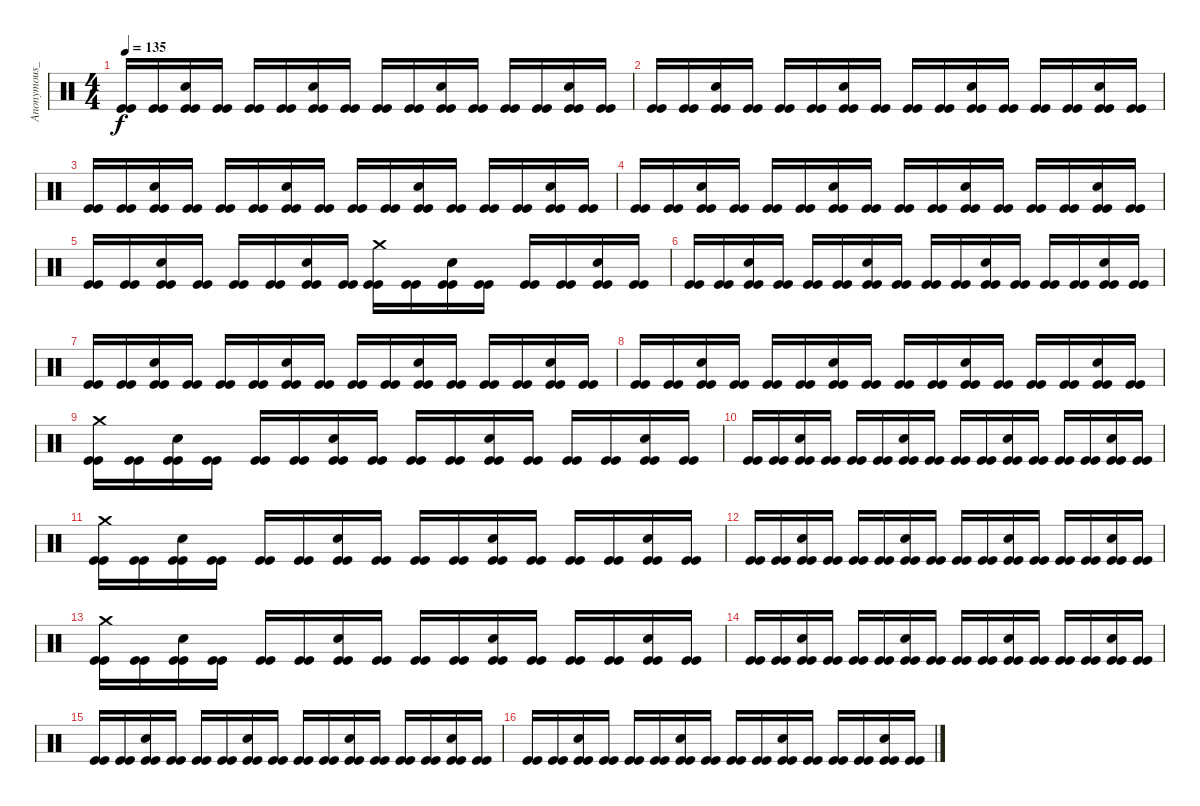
\track ("Anonymous_Drums" "Anonymous_") {instrument percussion}
\staff {score}
\articulation defaults
\ts (4 4)
\tempo 135
\clef neutral
\ks c
("Kick (hit)" "Kick (hit)").16{dy f} ("Kick (hit)" "Kick (hit)").16 ("Snare (hit) 2" "Kick (hit)" "Kick (hit)").16 ("Kick (hit)" "Kick (hit)").16 ("Kick (hit)" "Kick (hit)").16 ("Kick (hit)" "Kick (hit)").16 ("Snare (hit) 2" "Kick (hit)" "Kick (hit)").16 ("Kick (hit)" "Kick (hit)").16 ("Kick (hit)" "Kick (hit)").16 ("Kick (hit)" "Kick (hit)").16 ("Snare (hit) 2" "Kick (hit)" "Kick (hit)").16 ("Kick (hit)" "Kick (hit)").16 ("Kick (hit)" "Kick (hit)").16 ("Kick (hit)" "Kick (hit)").16 ("Snare (hit) 2" "Kick (hit)" "Kick (hit)").16 ("Kick (hit)" "Kick (hit)").16 |
("Kick (hit)" "Kick (hit)").16 ("Kick (hit)" "Kick (hit)").16 ("Snare (hit) 2" "Kick (hit)" "Kick (hit)").16 ("Kick (hit)" "Kick (hit)").16 ("Kick (hit)" "Kick (hit)").16 ("Kick (hit)" "Kick (hit)").16 ("Snare (hit) 2" "Kick (hit)" "Kick (hit)").16 ("Kick (hit)" "Kick (hit)").16 ("Kick (hit)" "Kick (hit)").16 ("Kick (hit)" "Kick (hit)").16 ("Snare (hit) 2" "Kick (hit)" "Kick (hit)").16 ("Kick (hit)" "Kick (hit)").16 ("Kick (hit)" "Kick (hit)").16 ("Kick (hit)" "Kick (hit)").16 ("Snare (hit) 2" "Kick (hit)" "Kick (hit)").16 ("Kick (hit)" "Kick (hit)").16 |
("Kick (hit)" "Kick (hit)").16 ("Kick (hit)" "Kick (hit)").16 ("Snare (hit) 2" "Kick (hit)" "Kick (hit)").16 ("Kick (hit)" "Kick (hit)").16 ("Kick (hit)" "Kick (hit)").16 ("Kick (hit)" "Kick (hit)").16 ("Snare (hit) 2" "Kick (hit)" "Kick (hit)").16 ("Kick (hit)" "Kick (hit)").16 ("Kick (hit)" "Kick (hit)").16 ("Kick (hit)" "Kick (hit)").16 ("Snare (hit) 2" "Kick (hit)" "Kick (hit)").16 ("Kick (hit)" "Kick (hit)").16 ("Kick (hit)" "Kick (hit)").16 ("Kick (hit)" "Kick (hit)").16 ("Snare (hit) 2" "Kick (hit)" "Kick (hit)").16 ("Kick (hit)" "Kick (hit)").16 |
("Kick (hit)" "Kick (hit)").16 ("Kick (hit)" "Kick (hit)").16 ("Snare (hit) 2" "Kick (hit)" "Kick (hit)").16 ("Kick (hit)" "Kick (hit)").16 ("Kick (hit)" "Kick (hit)").16 ("Kick (hit)" "Kick (hit)").16 ("Snare (hit) 2" "Kick (hit)" "Kick (hit)").16 ("Kick (hit)" "Kick (hit)").16 ("Kick (hit)" "Kick (hit)").16 ("Kick (hit)" "Kick (hit)").16 ("Snare (hit) 2" "Kick (hit)" "Kick (hit)").16 ("Kick (hit)" "Kick (hit)").16 ("Kick (hit)" "Kick (hit)").16 ("Kick (hit)" "Kick (hit)").16 ("Snare (hit) 2" "Kick (hit)" "Kick (hit)").16 ("Kick (hit)" "Kick (hit)").16 |
("Kick (hit)" "Kick (hit)").16 ("Kick (hit)" "Kick (hit)").16 ("Snare (hit) 2" "Kick (hit)" "Kick (hit)").16 ("Kick (hit)" "Kick (hit)").16 ("Kick (hit)" "Kick (hit)").16 ("Kick (hit)" "Kick (hit)").16 ("Snare (hit) 2" "Kick (hit)" "Kick (hit)").16 ("Kick (hit)" "Kick (hit)").16 ("Crash medium (hit)" "Kick (hit)" "Kick (hit)").16 ("Kick (hit)" "Kick (hit)").16 ("Snare (hit) 2" "Kick (hit)" "Kick (hit)").16 ("Kick (hit)" "Kick (hit)").16 ("Kick (hit)" "Kick (hit)").16 ("Kick (hit)" "Kick (hit)").16 ("Snare (hit) 2" "Kick (hit)" "Kick (hit)").16 ("Kick (hit)" "Kick (hit)").16 |
("Kick (hit)" "Kick (hit)").16 ("Kick (hit)" "Kick (hit)").16 ("Snare (hit) 2" "Kick (hit)" "Kick (hit)").16 ("Kick (hit)" "Kick (hit)").16 ("Kick (hit)" "Kick (hit)").16 ("Kick (hit)" "Kick (hit)").16 ("Snare (hit) 2" "Kick (hit)" "Kick (hit)").16 ("Kick (hit)" "Kick (hit)").16 ("Kick (hit)" "Kick (hit)").16 ("Kick (hit)" "Kick (hit)").16 ("Snare (hit) 2" "Kick (hit)" "Kick (hit)").16 ("Kick (hit)" "Kick (hit)").16 ("Kick (hit)" "Kick (hit)").16 ("Kick (hit)" "Kick (hit)").16 ("Snare (hit) 2" "Kick (hit)" "Kick (hit)").16 ("Kick (hit)" "Kick (hit)").16 |
("Kick (hit)" "Kick (hit)").16 ("Kick (hit)" "Kick (hit)").16 ("Snare (hit) 2" "Kick (hit)" "Kick (hit)").16 ("Kick (hit)" "Kick (hit)").16 ("Kick (hit)" "Kick (hit)").16 ("Kick (hit)" "Kick (hit)").16 ("Snare (hit) 2" "Kick (hit)" "Kick (hit)").16 ("Kick (hit)" "Kick (hit)").16 ("Kick (hit)" "Kick (hit)").16 ("Kick (hit)" "Kick (hit)").16 ("Snare (hit) 2" "Kick (hit)" "Kick (hit)").16 ("Kick (hit)" "Kick (hit)").16 ("Kick (hit)" "Kick (hit)").16 ("Kick (hit)" "Kick (hit)").16 ("Snare (hit) 2" "Kick (hit)" "Kick (hit)").16 ("Kick (hit)" "Kick (hit)").16 |
("Kick (hit)" "Kick (hit)").16 ("Kick (hit)" "Kick (hit)").16 ("Snare (hit) 2" "Kick (hit)" "Kick (hit)").16 ("Kick (hit)" "Kick (hit)").16 ("Kick (hit)" "Kick (hit)").16 ("Kick (hit)" "Kick (hit)").16 ("Snare (hit) 2" "Kick (hit)" "Kick (hit)").16 ("Kick (hit)" "Kick (hit)").16 ("Kick (hit)" "Kick (hit)").16 ("Kick (hit)" "Kick (hit)").16 ("Snare (hit) 2" "Kick (hit)" "Kick (hit)").16 ("Kick (hit)" "Kick (hit)").16 ("Kick (hit)" "Kick (hit)").16 ("Kick (hit)" "Kick (hit)").16 ("Snare (hit) 2" "Kick (hit)" "Kick (hit)").16 ("Kick (hit)" "Kick (hit)").16 |
("Crash medium (hit)" "Kick (hit)" "Kick (hit)").16 ("Kick (hit)" "Kick (hit)").16 ("Snare (hit) 2" "Kick (hit)" "Kick (hit)").16 ("Kick (hit)" "Kick (hit)").16 ("Kick (hit)" "Kick (hit)").16 ("Kick (hit)" "Kick (hit)").16 ("Snare (hit) 2" "Kick (hit)" "Kick (hit)").16 ("Kick (hit)" "Kick (hit)").16 ("Kick (hit)" "Kick (hit)").16 ("Kick (hit)" "Kick (hit)").16 ("Snare (hit) 2" "Kick (hit)" "Kick (hit)").16 ("Kick (hit)" "Kick (hit)").16 ("Kick (hit)" "Kick (hit)").16 ("Kick (hit)" "Kick (hit)").16 ("Snare (hit) 2" "Kick (hit)" "Kick (hit)").16 ("Kick (hit)" "Kick (hit)").16 |
("Kick (hit)" "Kick (hit)").16 ("Kick (hit)" "Kick (hit)").16 ("Snare (hit) 2" "Kick (hit)" "Kick (hit)").16 ("Kick (hit)" "Kick (hit)").16 ("Kick (hit)" "Kick (hit)").16 ("Kick (hit)" "Kick (hit)").16 ("Snare (hit) 2" "Kick (hit)" "Kick (hit)").16 ("Kick (hit)" "Kick (hit)").16 ("Kick (hit)" "Kick (hit)").16 ("Kick (hit)" "Kick (hit)").16 ("Snare (hit) 2" "Kick (hit)" "Kick (hit)").16 ("Kick (hit)" "Kick (hit)").16 ("Kick (hit)" "Kick (hit)").16 ("Kick (hit)" "Kick (hit)").16 ("Snare (hit) 2" "Kick (hit)" "Kick (hit)").16 ("Kick (hit)" "Kick (hit)").16 |
("Crash medium (hit)" "Kick (hit)" "Kick (hit)").16 ("Kick (hit)" "Kick (hit)").16 ("Snare (hit) 2" "Kick (hit)" "Kick (hit)").16 ("Kick (hit)" "Kick (hit)").16 ("Kick (hit)" "Kick (hit)").16 ("Kick (hit)" "Kick (hit)").16 ("Snare (hit) 2" "Kick (hit)" "Kick (hit)").16 ("Kick (hit)" "Kick (hit)").16 ("Kick (hit)" "Kick (hit)").16 ("Kick (hit)" "Kick (hit)").16 ("Snare (hit) 2" "Kick (hit)" "Kick (hit)").16 ("Kick (hit)" "Kick (hit)").16 ("Kick (hit)" "Kick (hit)").16 ("Kick (hit)" "Kick (hit)").16 ("Snare (hit) 2" "Kick (hit)" "Kick (hit)").16 ("Kick (hit)" "Kick (hit)").16 |
("Kick (hit)" "Kick (hit)").16 ("Kick (hit)" "Kick (hit)").16 ("Snare (hit) 2" "Kick (hit)" "Kick (hit)").16 ("Kick (hit)" "Kick (hit)").16 ("Kick (hit)" "Kick (hit)").16 ("Kick (hit)" "Kick (hit)").16 ("Snare (hit) 2" "Kick (hit)" "Kick (hit)").16 ("Kick (hit)" "Kick (hit)").16 ("Kick (hit)" "Kick (hit)").16 ("Kick (hit)" "Kick (hit)").16 ("Snare (hit) 2" "Kick (hit)" "Kick (hit)").16 ("Kick (hit)" "Kick (hit)").16 ("Kick (hit)" "Kick (hit)").16 ("Kick (hit)" "Kick (hit)").16 ("Snare (hit) 2" "Kick (hit)" "Kick (hit)").16 ("Kick (hit)" "Kick (hit)").16 |
("Crash medium (hit)" "Kick (hit)" "Kick (hit)").16 ("Kick (hit)" "Kick (hit)").16 ("Snare (hit) 2" "Kick (hit)" "Kick (hit)").16 ("Kick (hit)" "Kick (hit)").16 ("Kick (hit)" "Kick (hit)").16 ("Kick (hit)" "Kick (hit)").16 ("Snare (hit) 2" "Kick (hit)" "Kick (hit)").16 ("Kick (hit)" "Kick (hit)").16 ("Kick (hit)" "Kick (hit)").16 ("Kick (hit)" "Kick (hit)").16 ("Snare (hit) 2" "Kick (hit)" "Kick (hit)").16 ("Kick (hit)" "Kick (hit)").16 ("Kick (hit)" "Kick (hit)").16 ("Kick (hit)" "Kick (hit)").16 ("Snare (hit) 2" "Kick (hit)" "Kick (hit)").16 ("Kick (hit)" "Kick (hit)").16 |
("Kick (hit)" "Kick (hit)").16 ("Kick (hit)" "Kick (hit)").16 ("Snare (hit) 2" "Kick (hit)" "Kick (hit)").16 ("Kick (hit)" "Kick (hit)").16 ("Kick (hit)" "Kick (hit)").16 ("Kick (hit)" "Kick (hit)").16 ("Snare (hit) 2" "Kick (hit)" "Kick (hit)").16 ("Kick (hit)" "Kick (hit)").16 ("Kick (hit)" "Kick (hit)").16 ("Kick (hit)" "Kick (hit)").16 ("Snare (hit) 2" "Kick (hit)" "Kick (hit)").16 ("Kick (hit)" "Kick (hit)").16 ("Kick (hit)" "Kick (hit)").16 ("Kick (hit)" "Kick (hit)").16 ("Snare (hit) 2" "Kick (hit)" "Kick (hit)").16 ("Kick (hit)" "Kick (hit)").16 |
("Kick (hit)" "Kick (hit)").16 ("Kick (hit)" "Kick (hit)").16 ("Snare (hit) 2" "Kick (hit)" "Kick (hit)").16 ("Kick (hit)" "Kick (hit)").16 ("Kick (hit)" "Kick (hit)").16 ("Kick (hit)" "Kick (hit)").16 ("Snare (hit) 2" "Kick (hit)" "Kick (hit)").16 ("Kick (hit)" "Kick (hit)").16 ("Kick (hit)" "Kick (hit)").16 ("Kick (hit)" "Kick (hit)").16 ("Snare (hit) 2" "Kick (hit)" "Kick (hit)").16 ("Kick (hit)" "Kick (hit)").16 ("Kick (hit)" "Kick (hit)").16 ("Kick (hit)" "Kick (hit)").16 ("Snare (hit) 2" "Kick (hit)" "Kick (hit)").16 ("Kick (hit)" "Kick (hit)").16 |
("Kick (hit)" "Kick (hit)").16 ("Kick (hit)" "Kick (hit)").16 ("Snare (hit) 2" "Kick (hit)" "Kick (hit)").16 ("Kick (hit)" "Kick (hit)").16 ("Kick (hit)" "Kick (hit)").16 ("Kick (hit)" "Kick (hit)").16 ("Snare (hit) 2" "Kick (hit)" "Kick (hit)").16 ("Kick (hit)" "Kick (hit)").16 ("Kick (hit)" "Kick (hit)").16 ("Kick (hit)" "Kick (hit)").16 ("Snare (hit) 2" "Kick (hit)" "Kick (hit)").16 ("Kick (hit)" "Kick (hit)").16 ("Kick (hit)" "Kick (hit)").16 ("Kick (hit)" "Kick (hit)").16 ("Snare (hit) 2" "Kick (hit)" "Kick (hit)").16 ("Kick (hit)" "Kick (hit)").16
